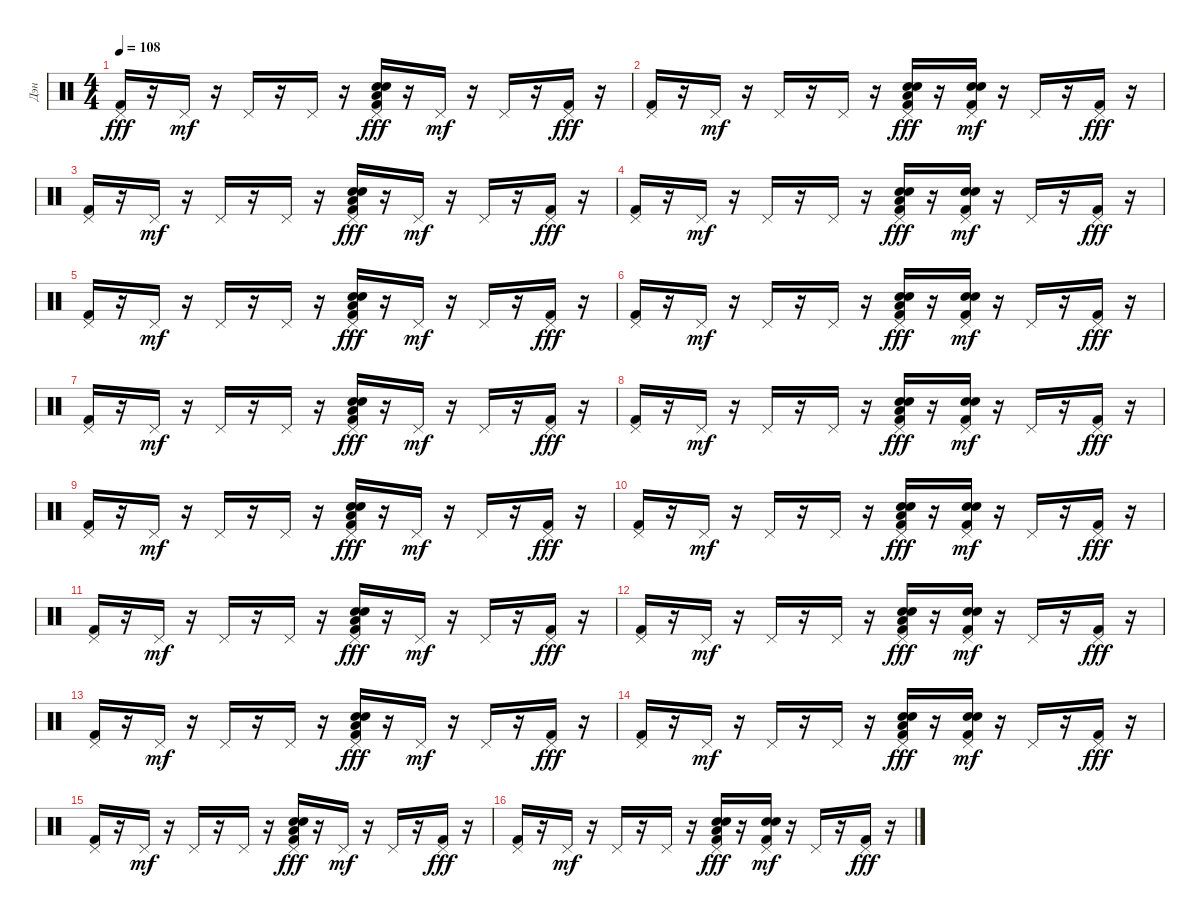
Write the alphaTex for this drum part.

\track ("Дэн" "Дэн") {instrument percussion}
\staff {score}
\articulation defaults
\ts (4 4)
\tempo 108
\clef neutral
\ks c
("Pedal Hi-Hat (hit)" "Kick (hit) 2").16{dy fff} r.16 "Pedal Hi-Hat (hit)".16{dy mf} r.16 "Pedal Hi-Hat (hit)".16 r.16 "Pedal Hi-Hat (hit)".16 r.16 ("Pedal Hi-Hat (hit)" "Snare (hit) 2" "Low Floor Tom (hit)" "Electric Snare (hit)" "Kick (hit) 2").16{dy fff} r.16 "Pedal Hi-Hat (hit)".16{dy mf} r.16 "Pedal Hi-Hat (hit)".16 r.16 ("Pedal Hi-Hat (hit)" "Kick (hit) 2").16{dy fff} r.16 |
("Pedal Hi-Hat (hit)" "Kick (hit) 2").16 r.16 "Pedal Hi-Hat (hit)".16{dy mf} r.16 "Pedal Hi-Hat (hit)".16 r.16 "Pedal Hi-Hat (hit)".16 r.16 ("Pedal Hi-Hat (hit)" "Snare (hit) 2" "Low Floor Tom (hit)" "Electric Snare (hit)" "Kick (hit) 2").16{dy fff} r.16 ("Pedal Hi-Hat (hit)" "Snare (hit) 2" "Electric Snare (hit)" "Kick (hit) 2").16{dy mf} r.16 "Pedal Hi-Hat (hit)".16 r.16 ("Pedal Hi-Hat (hit)" "Kick (hit) 2").16{dy fff} r.16 |
("Pedal Hi-Hat (hit)" "Kick (hit) 2").16 r.16 "Pedal Hi-Hat (hit)".16{dy mf} r.16 "Pedal Hi-Hat (hit)".16 r.16 "Pedal Hi-Hat (hit)".16 r.16 ("Pedal Hi-Hat (hit)" "Snare (hit) 2" "Low Floor Tom (hit)" "Electric Snare (hit)" "Kick (hit) 2").16{dy fff} r.16 "Pedal Hi-Hat (hit)".16{dy mf} r.16 "Pedal Hi-Hat (hit)".16 r.16 ("Pedal Hi-Hat (hit)" "Kick (hit) 2").16{dy fff} r.16 |
("Pedal Hi-Hat (hit)" "Kick (hit) 2").16 r.16 "Pedal Hi-Hat (hit)".16{dy mf} r.16 "Pedal Hi-Hat (hit)".16 r.16 "Pedal Hi-Hat (hit)".16 r.16 ("Pedal Hi-Hat (hit)" "Snare (hit) 2" "Low Floor Tom (hit)" "Electric Snare (hit)" "Kick (hit) 2").16{dy fff} r.16 ("Pedal Hi-Hat (hit)" "Snare (hit) 2" "Electric Snare (hit)" "Kick (hit) 2").16{dy mf} r.16 "Pedal Hi-Hat (hit)".16 r.16 ("Pedal Hi-Hat (hit)" "Kick (hit) 2").16{dy fff} r.16 |
("Pedal Hi-Hat (hit)" "Kick (hit) 2").16 r.16 "Pedal Hi-Hat (hit)".16{dy mf} r.16 "Pedal Hi-Hat (hit)".16 r.16 "Pedal Hi-Hat (hit)".16 r.16 ("Pedal Hi-Hat (hit)" "Snare (hit) 2" "Low Floor Tom (hit)" "Electric Snare (hit)" "Kick (hit) 2").16{dy fff} r.16 "Pedal Hi-Hat (hit)".16{dy mf} r.16 "Pedal Hi-Hat (hit)".16 r.16 ("Pedal Hi-Hat (hit)" "Kick (hit) 2").16{dy fff} r.16 |
("Pedal Hi-Hat (hit)" "Kick (hit) 2").16 r.16 "Pedal Hi-Hat (hit)".16{dy mf} r.16 "Pedal Hi-Hat (hit)".16 r.16 "Pedal Hi-Hat (hit)".16 r.16 ("Pedal Hi-Hat (hit)" "Snare (hit) 2" "Low Floor Tom (hit)" "Electric Snare (hit)" "Kick (hit) 2").16{dy fff} r.16 ("Pedal Hi-Hat (hit)" "Snare (hit) 2" "Electric Snare (hit)" "Kick (hit) 2").16{dy mf} r.16 "Pedal Hi-Hat (hit)".16 r.16 ("Pedal Hi-Hat (hit)" "Kick (hit) 2").16{dy fff} r.16 |
("Pedal Hi-Hat (hit)" "Kick (hit) 2").16 r.16 "Pedal Hi-Hat (hit)".16{dy mf} r.16 "Pedal Hi-Hat (hit)".16 r.16 "Pedal Hi-Hat (hit)".16 r.16 ("Pedal Hi-Hat (hit)" "Snare (hit) 2" "Low Floor Tom (hit)" "Electric Snare (hit)" "Kick (hit) 2").16{dy fff} r.16 "Pedal Hi-Hat (hit)".16{dy mf} r.16 "Pedal Hi-Hat (hit)".16 r.16 ("Pedal Hi-Hat (hit)" "Kick (hit) 2").16{dy fff} r.16 |
("Pedal Hi-Hat (hit)" "Kick (hit) 2").16 r.16 "Pedal Hi-Hat (hit)".16{dy mf} r.16 "Pedal Hi-Hat (hit)".16 r.16 "Pedal Hi-Hat (hit)".16 r.16 ("Pedal Hi-Hat (hit)" "Snare (hit) 2" "Low Floor Tom (hit)" "Electric Snare (hit)" "Kick (hit) 2").16{dy fff} r.16 ("Pedal Hi-Hat (hit)" "Snare (hit) 2" "Electric Snare (hit)" "Kick (hit) 2").16{dy mf} r.16 "Pedal Hi-Hat (hit)".16 r.16 ("Pedal Hi-Hat (hit)" "Kick (hit) 2").16{dy fff} r.16 |
("Pedal Hi-Hat (hit)" "Kick (hit) 2").16 r.16 "Pedal Hi-Hat (hit)".16{dy mf} r.16 "Pedal Hi-Hat (hit)".16 r.16 "Pedal Hi-Hat (hit)".16 r.16 ("Pedal Hi-Hat (hit)" "Snare (hit) 2" "Low Floor Tom (hit)" "Electric Snare (hit)" "Kick (hit) 2").16{dy fff} r.16 "Pedal Hi-Hat (hit)".16{dy mf} r.16 "Pedal Hi-Hat (hit)".16 r.16 ("Pedal Hi-Hat (hit)" "Kick (hit) 2").16{dy fff} r.16 |
("Pedal Hi-Hat (hit)" "Kick (hit) 2").16 r.16 "Pedal Hi-Hat (hit)".16{dy mf} r.16 "Pedal Hi-Hat (hit)".16 r.16 "Pedal Hi-Hat (hit)".16 r.16 ("Pedal Hi-Hat (hit)" "Snare (hit) 2" "Low Floor Tom (hit)" "Electric Snare (hit)" "Kick (hit) 2").16{dy fff} r.16 ("Pedal Hi-Hat (hit)" "Snare (hit) 2" "Electric Snare (hit)" "Kick (hit) 2").16{dy mf} r.16 "Pedal Hi-Hat (hit)".16 r.16 ("Pedal Hi-Hat (hit)" "Kick (hit) 2").16{dy fff} r.16 |
("Pedal Hi-Hat (hit)" "Kick (hit) 2").16 r.16 "Pedal Hi-Hat (hit)".16{dy mf} r.16 "Pedal Hi-Hat (hit)".16 r.16 "Pedal Hi-Hat (hit)".16 r.16 ("Pedal Hi-Hat (hit)" "Snare (hit) 2" "Low Floor Tom (hit)" "Electric Snare (hit)" "Kick (hit) 2").16{dy fff} r.16 "Pedal Hi-Hat (hit)".16{dy mf} r.16 "Pedal Hi-Hat (hit)".16 r.16 ("Pedal Hi-Hat (hit)" "Kick (hit) 2").16{dy fff} r.16 |
("Pedal Hi-Hat (hit)" "Kick (hit) 2").16 r.16 "Pedal Hi-Hat (hit)".16{dy mf} r.16 "Pedal Hi-Hat (hit)".16 r.16 "Pedal Hi-Hat (hit)".16 r.16 ("Pedal Hi-Hat (hit)" "Snare (hit) 2" "Low Floor Tom (hit)" "Electric Snare (hit)" "Kick (hit) 2").16{dy fff} r.16 ("Pedal Hi-Hat (hit)" "Snare (hit) 2" "Electric Snare (hit)" "Kick (hit) 2").16{dy mf} r.16 "Pedal Hi-Hat (hit)".16 r.16 ("Pedal Hi-Hat (hit)" "Kick (hit) 2").16{dy fff} r.16 |
("Pedal Hi-Hat (hit)" "Kick (hit) 2").16 r.16 "Pedal Hi-Hat (hit)".16{dy mf} r.16 "Pedal Hi-Hat (hit)".16 r.16 "Pedal Hi-Hat (hit)".16 r.16 ("Pedal Hi-Hat (hit)" "Snare (hit) 2" "Low Floor Tom (hit)" "Electric Snare (hit)" "Kick (hit) 2").16{dy fff} r.16 "Pedal Hi-Hat (hit)".16{dy mf} r.16 "Pedal Hi-Hat (hit)".16 r.16 ("Pedal Hi-Hat (hit)" "Kick (hit) 2").16{dy fff} r.16 |
("Pedal Hi-Hat (hit)" "Kick (hit) 2").16 r.16 "Pedal Hi-Hat (hit)".16{dy mf} r.16 "Pedal Hi-Hat (hit)".16 r.16 "Pedal Hi-Hat (hit)".16 r.16 ("Pedal Hi-Hat (hit)" "Snare (hit) 2" "Low Floor Tom (hit)" "Electric Snare (hit)" "Kick (hit) 2").16{dy fff} r.16 ("Pedal Hi-Hat (hit)" "Snare (hit) 2" "Electric Snare (hit)" "Kick (hit) 2").16{dy mf} r.16 "Pedal Hi-Hat (hit)".16 r.16 ("Pedal Hi-Hat (hit)" "Kick (hit) 2").16{dy fff} r.16 |
("Pedal Hi-Hat (hit)" "Kick (hit) 2").16 r.16 "Pedal Hi-Hat (hit)".16{dy mf} r.16 "Pedal Hi-Hat (hit)".16 r.16 "Pedal Hi-Hat (hit)".16 r.16 ("Pedal Hi-Hat (hit)" "Snare (hit) 2" "Low Floor Tom (hit)" "Electric Snare (hit)" "Kick (hit) 2").16{dy fff} r.16 "Pedal Hi-Hat (hit)".16{dy mf} r.16 "Pedal Hi-Hat (hit)".16 r.16 ("Pedal Hi-Hat (hit)" "Kick (hit) 2").16{dy fff} r.16 |
("Pedal Hi-Hat (hit)" "Kick (hit) 2").16 r.16 "Pedal Hi-Hat (hit)".16{dy mf} r.16 "Pedal Hi-Hat (hit)".16 r.16 "Pedal Hi-Hat (hit)".16 r.16 ("Pedal Hi-Hat (hit)" "Snare (hit) 2" "Low Floor Tom (hit)" "Electric Snare (hit)" "Kick (hit) 2").16{dy fff} r.16 ("Pedal Hi-Hat (hit)" "Snare (hit) 2" "Electric Snare (hit)" "Kick (hit) 2").16{dy mf} r.16 "Pedal Hi-Hat (hit)".16 r.16 ("Pedal Hi-Hat (hit)" "Kick (hit) 2").16{dy fff} r.16
